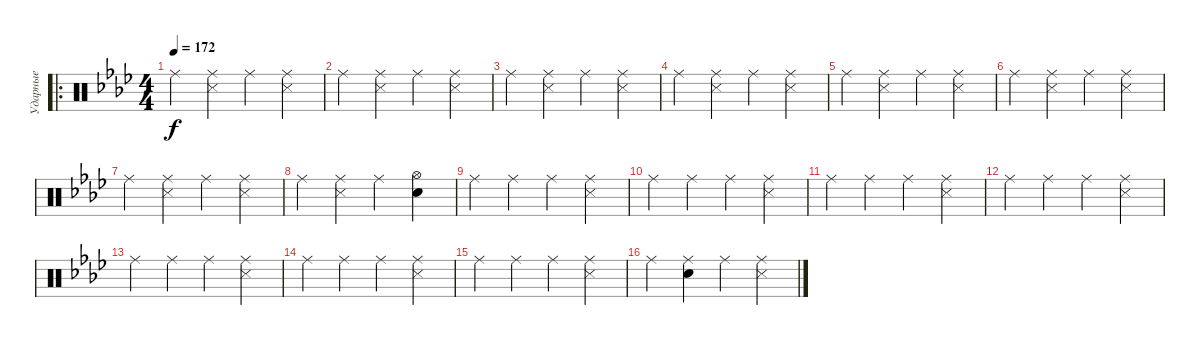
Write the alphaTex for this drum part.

\track ("Ударные" "Ударные") {instrument percussion}
\staff {score}
\articulation defaults
\ro
\ts (4 4)
\tempo 172
\clef neutral
\ks ab "Ride (middle)".4{dy f}
("Ride (middle)" "Snare (side stick) 3").4 "Ride (middle)".4 ("Ride (middle)" "Snare (side stick) 3").4 |
"Ride (middle)".4 ("Ride (middle)" "Snare (side stick) 3").4 "Ride (middle)".4 ("Ride (middle)" "Snare (side stick) 3").4 |
"Ride (middle)".4 ("Ride (middle)" "Snare (side stick) 3").4 "Ride (middle)".4 ("Ride (middle)" "Snare (side stick) 3").4 |
"Ride (middle)".4 ("Ride (middle)" "Snare (side stick) 3").4 "Ride (middle)".4 ("Ride (middle)" "Snare (side stick) 3").4 |
"Ride (middle)".4 ("Ride (middle)" "Snare (side stick) 3").4 "Ride (middle)".4 ("Ride (middle)" "Snare (side stick) 3").4 |
"Ride (middle)".4 ("Ride (middle)" "Snare (side stick) 3").4 "Ride (middle)".4 ("Ride (middle)" "Snare (side stick) 3").4 |
"Ride (middle)".4 ("Ride (middle)" "Snare (side stick) 3").4 "Ride (middle)".4 ("Ride (middle)" "Snare (side stick) 3").4 |
"Ride (middle)".4 ("Ride (middle)" "Snare (side stick) 3").4 "Ride (middle)".4 ("Hi-Hat (open)" "Electric Snare (hit)").4 |
"Ride (middle)".4 "Ride (middle)".4 "Ride (middle)".4 ("Ride (middle)" "Snare (side stick) 3").4 |
"Ride (middle)".4 "Ride (middle)".4 "Ride (middle)".4 ("Ride (middle)" "Snare (side stick) 3").4 |
"Ride (middle)".4 "Ride (middle)".4 "Ride (middle)".4 ("Ride (middle)" "Snare (side stick) 3").4 |
"Ride (middle)".4 "Ride (middle)".4 "Ride (middle)".4 ("Ride (middle)" "Snare (side stick) 3").4 |
"Ride (middle)".4 "Ride (middle)".4 "Ride (middle)".4 ("Ride (middle)" "Snare (side stick) 3").4 |
"Ride (middle)".4 "Ride (middle)".4 "Ride (middle)".4 ("Ride (middle)" "Snare (side stick) 3").4 |
"Ride (middle)".4 "Ride (middle)".4 "Ride (middle)".4 ("Ride (middle)" "Snare (side stick) 3").4 |
"Ride (middle)".4 ("Ride (middle)" "Electric Snare (hit)").4 "Ride (middle)".4 ("Ride (middle)" "Snare (side stick) 3").4
